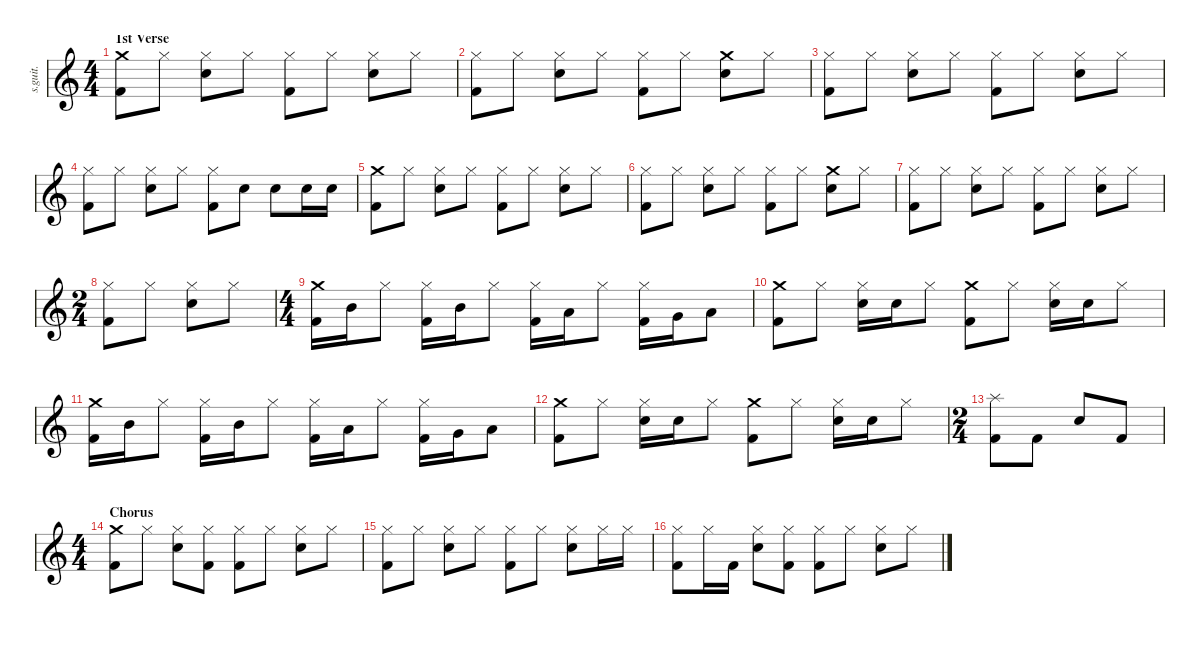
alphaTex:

\defaultSystemsLayout 4
\hideDynamics
\bracketExtendMode nobrackets
\track ("Lars Ulrich" "s.guit.") {instrument percussion}
\staff {score}
\articulation defaults
\ts (4 4)
\section ("" "1st Verse")
\tempo (69 hide)
\clef g2
\ks c
("Crash medium (hit)" "Kick (hit) 2").8{lyrics (0 "") lyrics (1 "") lyrics (2 "") lyrics (3 "") lyrics (4 "") dy f} "Hi-Hat (closed)".8{lyrics (0 "") lyrics (1 "") lyrics (2 "") lyrics (3 "") lyrics (4 "")} ("Hi-Hat (closed)" "Snare (hit) 2").8{lyrics (0 "") lyrics (1 "") lyrics (2 "") lyrics (3 "") lyrics (4 "")} "Hi-Hat (closed)".8{lyrics (0 "") lyrics (1 "") lyrics (2 "") lyrics (3 "") lyrics (4 "")} ("Hi-Hat (closed)" "Kick (hit) 2").8{lyrics (0 "") lyrics (1 "") lyrics (2 "") lyrics (3 "") lyrics (4 "")} "Hi-Hat (closed)".8{lyrics (0 "") lyrics (1 "") lyrics (2 "") lyrics (3 "") lyrics (4 "")} ("Hi-Hat (closed)" "Snare (hit) 2").8{lyrics (0 "") lyrics (1 "") lyrics (2 "") lyrics (3 "") lyrics (4 "")} "Hi-Hat (closed)".8{lyrics (0 "") lyrics (1 "") lyrics (2 "") lyrics (3 "") lyrics (4 "")} |
("Hi-Hat (closed)" "Kick (hit) 2").8{lyrics (0 "") lyrics (1 "") lyrics (2 "") lyrics (3 "") lyrics (4 "")} "Hi-Hat (closed)".8{lyrics (0 "") lyrics (1 "") lyrics (2 "") lyrics (3 "") lyrics (4 "")} ("Hi-Hat (closed)" "Snare (hit) 2").8{lyrics (0 "") lyrics (1 "") lyrics (2 "") lyrics (3 "") lyrics (4 "")} "Hi-Hat (closed)".8{lyrics (0 "") lyrics (1 "") lyrics (2 "") lyrics (3 "") lyrics (4 "")} ("Hi-Hat (closed)" "Kick (hit) 2").8{lyrics (0 "") lyrics (1 "") lyrics (2 "") lyrics (3 "") lyrics (4 "")} "Hi-Hat (closed)".8{lyrics (0 "") lyrics (1 "") lyrics (2 "") lyrics (3 "") lyrics (4 "")} ("Crash medium (hit)" "Snare (hit) 2").8{lyrics (0 "") lyrics (1 "") lyrics (2 "") lyrics (3 "") lyrics (4 "")} "Hi-Hat (closed)".8{lyrics (0 "") lyrics (1 "") lyrics (2 "") lyrics (3 "") lyrics (4 "")} |
("Hi-Hat (closed)" "Kick (hit) 2").8{lyrics (0 "") lyrics (1 "") lyrics (2 "") lyrics (3 "") lyrics (4 "")} "Hi-Hat (closed)".8{lyrics (0 "") lyrics (1 "") lyrics (2 "") lyrics (3 "") lyrics (4 "")} ("Hi-Hat (closed)" "Snare (hit) 2").8{lyrics (0 "") lyrics (1 "") lyrics (2 "") lyrics (3 "") lyrics (4 "")} "Hi-Hat (closed)".8{lyrics (0 "") lyrics (1 "") lyrics (2 "") lyrics (3 "") lyrics (4 "")} ("Hi-Hat (closed)" "Kick (hit) 2").8{lyrics (0 "") lyrics (1 "") lyrics (2 "") lyrics (3 "") lyrics (4 "")} "Hi-Hat (closed)".8{lyrics (0 "") lyrics (1 "") lyrics (2 "") lyrics (3 "") lyrics (4 "")} ("Hi-Hat (closed)" "Snare (hit) 2").8{lyrics (0 "") lyrics (1 "") lyrics (2 "") lyrics (3 "") lyrics (4 "")} "Hi-Hat (closed)".8{lyrics (0 "") lyrics (1 "") lyrics (2 "") lyrics (3 "") lyrics (4 "")} |
("Hi-Hat (closed)" "Kick (hit) 2").8{lyrics (0 "") lyrics (1 "") lyrics (2 "") lyrics (3 "") lyrics (4 "")} "Hi-Hat (closed)".8{lyrics (0 "") lyrics (1 "") lyrics (2 "") lyrics (3 "") lyrics (4 "")} ("Hi-Hat (closed)" "Snare (hit) 2").8{lyrics (0 "") lyrics (1 "") lyrics (2 "") lyrics (3 "") lyrics (4 "")} "Hi-Hat (closed)".8{lyrics (0 "") lyrics (1 "") lyrics (2 "") lyrics (3 "") lyrics (4 "")} ("Hi-Hat (closed)" "Kick (hit) 2").8{lyrics (0 "") lyrics (1 "") lyrics (2 "") lyrics (3 "") lyrics (4 "")} "Snare (hit) 2".8{lyrics (0 "") lyrics (1 "") lyrics (2 "") lyrics (3 "") lyrics (4 "")} "Snare (hit) 2".8{lyrics (0 "") lyrics (1 "") lyrics (2 "") lyrics (3 "") lyrics (4 "")} "Snare (hit) 2".16{lyrics (0 "") lyrics (1 "") lyrics (2 "") lyrics (3 "") lyrics (4 "")} "Snare (hit) 2".16{lyrics (0 "") lyrics (1 "") lyrics (2 "") lyrics (3 "") lyrics (4 "")} |
("Crash medium (hit)" "Kick (hit) 2").8{lyrics (0 "") lyrics (1 "") lyrics (2 "") lyrics (3 "") lyrics (4 "")} "Hi-Hat (closed)".8{lyrics (0 "") lyrics (1 "") lyrics (2 "") lyrics (3 "") lyrics (4 "")} ("Hi-Hat (closed)" "Snare (hit) 2").8{lyrics (0 "") lyrics (1 "") lyrics (2 "") lyrics (3 "") lyrics (4 "")} "Hi-Hat (closed)".8{lyrics (0 "") lyrics (1 "") lyrics (2 "") lyrics (3 "") lyrics (4 "")} ("Hi-Hat (closed)" "Kick (hit) 2").8{lyrics (0 "") lyrics (1 "") lyrics (2 "") lyrics (3 "") lyrics (4 "")} "Hi-Hat (closed)".8{lyrics (0 "") lyrics (1 "") lyrics (2 "") lyrics (3 "") lyrics (4 "")} ("Hi-Hat (closed)" "Snare (hit) 2").8{lyrics (0 "") lyrics (1 "") lyrics (2 "") lyrics (3 "") lyrics (4 "")} "Hi-Hat (closed)".8{lyrics (0 "") lyrics (1 "") lyrics (2 "") lyrics (3 "") lyrics (4 "")} |
("Hi-Hat (closed)" "Kick (hit) 2").8{lyrics (0 "") lyrics (1 "") lyrics (2 "") lyrics (3 "") lyrics (4 "")} "Hi-Hat (closed)".8{lyrics (0 "") lyrics (1 "") lyrics (2 "") lyrics (3 "") lyrics (4 "")} ("Hi-Hat (closed)" "Snare (hit) 2").8{lyrics (0 "") lyrics (1 "") lyrics (2 "") lyrics (3 "") lyrics (4 "")} "Hi-Hat (closed)".8{lyrics (0 "") lyrics (1 "") lyrics (2 "") lyrics (3 "") lyrics (4 "")} ("Hi-Hat (closed)" "Kick (hit) 2").8{lyrics (0 "") lyrics (1 "") lyrics (2 "") lyrics (3 "") lyrics (4 "")} "Hi-Hat (closed)".8{lyrics (0 "") lyrics (1 "") lyrics (2 "") lyrics (3 "") lyrics (4 "")} ("Crash medium (hit)" "Snare (hit) 2").8{lyrics (0 "") lyrics (1 "") lyrics (2 "") lyrics (3 "") lyrics (4 "")} "Hi-Hat (closed)".8{lyrics (0 "") lyrics (1 "") lyrics (2 "") lyrics (3 "") lyrics (4 "")} |
("Hi-Hat (closed)" "Kick (hit) 2").8{lyrics (0 "") lyrics (1 "") lyrics (2 "") lyrics (3 "") lyrics (4 "")} "Hi-Hat (closed)".8{lyrics (0 "") lyrics (1 "") lyrics (2 "") lyrics (3 "") lyrics (4 "")} ("Hi-Hat (closed)" "Snare (hit) 2").8{lyrics (0 "") lyrics (1 "") lyrics (2 "") lyrics (3 "") lyrics (4 "")} "Hi-Hat (closed)".8{lyrics (0 "") lyrics (1 "") lyrics (2 "") lyrics (3 "") lyrics (4 "")} ("Hi-Hat (closed)" "Kick (hit) 2").8{lyrics (0 "") lyrics (1 "") lyrics (2 "") lyrics (3 "") lyrics (4 "")} "Hi-Hat (closed)".8{lyrics (0 "") lyrics (1 "") lyrics (2 "") lyrics (3 "") lyrics (4 "")} ("Hi-Hat (closed)" "Snare (hit) 2").8{lyrics (0 "") lyrics (1 "") lyrics (2 "") lyrics (3 "") lyrics (4 "")} "Hi-Hat (closed)".8{lyrics (0 "") lyrics (1 "") lyrics (2 "") lyrics (3 "") lyrics (4 "")} |
\ts (2 4)
\beaming (8 2 2 2 2)
("Hi-Hat (closed)" "Kick (hit) 2").8{lyrics (0 "") lyrics (1 "") lyrics (2 "") lyrics (3 "") lyrics (4 "")} "Hi-Hat (closed)".8{lyrics (0 "") lyrics (1 "") lyrics (2 "") lyrics (3 "") lyrics (4 "")} ("Hi-Hat (closed)" "Snare (hit) 2").8{lyrics (0 "") lyrics (1 "") lyrics (2 "") lyrics (3 "") lyrics (4 "") dy fff} "Hi-Hat (closed)".8{lyrics (0 "") lyrics (1 "") lyrics (2 "") lyrics (3 "") lyrics (4 "") dy f} |
\ts (4 4)
\beaming (8 2 2 2 2)
("Crash medium (hit)" "Kick (hit) 2").16{lyrics (0 "") lyrics (1 "") lyrics (2 "") lyrics (3 "") lyrics (4 "")} "Mid Tom (hit)".16{lyrics (0 "") lyrics (1 "") lyrics (2 "") lyrics (3 "") lyrics (4 "") dy fff} "Hi-Hat (closed)".8{lyrics (0 "") lyrics (1 "") lyrics (2 "") lyrics (3 "") lyrics (4 "") dy f} ("Hi-Hat (closed)" "Kick (hit) 2").16{lyrics (0 "") lyrics (1 "") lyrics (2 "") lyrics (3 "") lyrics (4 "")} "Mid Tom (hit)".16{lyrics (0 "") lyrics (1 "") lyrics (2 "") lyrics (3 "") lyrics (4 "") dy fff} "Hi-Hat (closed)".8{lyrics (0 "") lyrics (1 "") lyrics (2 "") lyrics (3 "") lyrics (4 "") dy f} ("Hi-Hat (closed)" "Kick (hit) 2").16{lyrics (0 "") lyrics (1 "") lyrics (2 "") lyrics (3 "") lyrics (4 "")} "Low Tom (hit)".16{lyrics (0 "") lyrics (1 "") lyrics (2 "") lyrics (3 "") lyrics (4 "") dy fff} "Hi-Hat (closed)".8{lyrics (0 "") lyrics (1 "") lyrics (2 "") lyrics (3 "") lyrics (4 "") dy f} ("Hi-Hat (closed)" "Kick (hit) 2").16{lyrics (0 "") lyrics (1 "") lyrics (2 "") lyrics (3 "") lyrics (4 "")} "Very Low Tom (hit)".16{lyrics (0 "") lyrics (1 "") lyrics (2 "") lyrics (3 "") lyrics (4 "") dy fff} "Low Floor Tom (hit)".8{lyrics (0 "") lyrics (1 "") lyrics (2 "") lyrics (3 "") lyrics (4 "")} |
("Crash medium (hit)" "Kick (hit) 2").8{lyrics (0 "") lyrics (1 "") lyrics (2 "") lyrics (3 "") lyrics (4 "") dy f} "Hi-Hat (closed)".8{lyrics (0 "") lyrics (1 "") lyrics (2 "") lyrics (3 "") lyrics (4 "")} ("Hi-Hat (closed)" "Snare (hit) 2").16{lyrics (0 "") lyrics (1 "") lyrics (2 "") lyrics (3 "") lyrics (4 "")} "Snare (hit) 2".16{lyrics (0 "") lyrics (1 "") lyrics (2 "") lyrics (3 "") lyrics (4 "")} "Hi-Hat (closed)".8{lyrics (0 "") lyrics (1 "") lyrics (2 "") lyrics (3 "") lyrics (4 "")} ("Crash medium (hit)" "Kick (hit) 2").8{lyrics (0 "") lyrics (1 "") lyrics (2 "") lyrics (3 "") lyrics (4 "")} "Hi-Hat (closed)".8{lyrics (0 "") lyrics (1 "") lyrics (2 "") lyrics (3 "") lyrics (4 "")} ("Hi-Hat (closed)" "Snare (hit) 2").16{lyrics (0 "") lyrics (1 "") lyrics (2 "") lyrics (3 "") lyrics (4 "")} "Snare (hit) 2".16{lyrics (0 "") lyrics (1 "") lyrics (2 "") lyrics (3 "") lyrics (4 "")} "Hi-Hat (closed)".8{lyrics (0 "") lyrics (1 "") lyrics (2 "") lyrics (3 "") lyrics (4 "")} |
("Crash medium (hit)" "Kick (hit) 2").16{lyrics (0 "") lyrics (1 "") lyrics (2 "") lyrics (3 "") lyrics (4 "")} "Mid Tom (hit)".16{lyrics (0 "") lyrics (1 "") lyrics (2 "") lyrics (3 "") lyrics (4 "") dy fff} "Hi-Hat (closed)".8{lyrics (0 "") lyrics (1 "") lyrics (2 "") lyrics (3 "") lyrics (4 "") dy f} ("Hi-Hat (closed)" "Kick (hit) 2").16{lyrics (0 "") lyrics (1 "") lyrics (2 "") lyrics (3 "") lyrics (4 "")} "Mid Tom (hit)".16{lyrics (0 "") lyrics (1 "") lyrics (2 "") lyrics (3 "") lyrics (4 "") dy fff} "Hi-Hat (closed)".8{lyrics (0 "") lyrics (1 "") lyrics (2 "") lyrics (3 "") lyrics (4 "") dy f} ("Hi-Hat (closed)" "Kick (hit) 2").16{lyrics (0 "") lyrics (1 "") lyrics (2 "") lyrics (3 "") lyrics (4 "")} "Low Tom (hit)".16{lyrics (0 "") lyrics (1 "") lyrics (2 "") lyrics (3 "") lyrics (4 "") dy fff} "Hi-Hat (closed)".8{lyrics (0 "") lyrics (1 "") lyrics (2 "") lyrics (3 "") lyrics (4 "") dy f} ("Hi-Hat (closed)" "Kick (hit) 2").16{lyrics (0 "") lyrics (1 "") lyrics (2 "") lyrics (3 "") lyrics (4 "")} "Very Low Tom (hit)".16{lyrics (0 "") lyrics (1 "") lyrics (2 "") lyrics (3 "") lyrics (4 "") dy fff} "Low Floor Tom (hit)".8{lyrics (0 "") lyrics (1 "") lyrics (2 "") lyrics (3 "") lyrics (4 "")} |
("Crash medium (hit)" "Kick (hit) 2").8{lyrics (0 "") lyrics (1 "") lyrics (2 "") lyrics (3 "") lyrics (4 "") dy f} "Hi-Hat (closed)".8{lyrics (0 "") lyrics (1 "") lyrics (2 "") lyrics (3 "") lyrics (4 "")} ("Hi-Hat (closed)" "Snare (hit) 2").16{lyrics (0 "") lyrics (1 "") lyrics (2 "") lyrics (3 "") lyrics (4 "")} "Snare (hit) 2".16{lyrics (0 "") lyrics (1 "") lyrics (2 "") lyrics (3 "") lyrics (4 "")} "Hi-Hat (closed)".8{lyrics (0 "") lyrics (1 "") lyrics (2 "") lyrics (3 "") lyrics (4 "")} ("Crash medium (hit)" "Kick (hit) 2").8{lyrics (0 "") lyrics (1 "") lyrics (2 "") lyrics (3 "") lyrics (4 "")} "Hi-Hat (closed)".8{lyrics (0 "") lyrics (1 "") lyrics (2 "") lyrics (3 "") lyrics (4 "")} ("Hi-Hat (closed)" "Snare (hit) 2").16{lyrics (0 "") lyrics (1 "") lyrics (2 "") lyrics (3 "") lyrics (4 "")} "Snare (hit) 2".16{lyrics (0 "") lyrics (1 "") lyrics (2 "") lyrics (3 "") lyrics (4 "")} "Hi-Hat (closed)".8{lyrics (0 "") lyrics (1 "") lyrics (2 "") lyrics (3 "") lyrics (4 "")} |
\ts (2 4)
\beaming (8 2 2 2 2)
("Splash (hit)" "Kick (hit) 2").8{lyrics (0 "") lyrics (1 "") lyrics (2 "") lyrics (3 "") lyrics (4 "")} "Kick (hit) 2".8{lyrics (0 "") lyrics (1 "") lyrics (2 "") lyrics (3 "") lyrics (4 "") dy fff} "Snare (hit) 2".8{lyrics (0 "") lyrics (1 "") lyrics (2 "") lyrics (3 "") lyrics (4 "") dy f} "Kick (hit) 2".8{lyrics (0 "") lyrics (1 "") lyrics (2 "") lyrics (3 "") lyrics (4 "") dy fff} |
\ts (4 4)
\beaming (8 2 2 2 2)
\section ("" "Chorus")
("Crash medium (hit)" "Kick (hit) 2").8{lyrics (0 "") lyrics (1 "") lyrics (2 "") lyrics (3 "") lyrics (4 "") dy f} "Hi-Hat (closed)".8{lyrics (0 "") lyrics (1 "") lyrics (2 "") lyrics (3 "") lyrics (4 "")} ("Hi-Hat (closed)" "Snare (hit) 2").8{lyrics (0 "") lyrics (1 "") lyrics (2 "") lyrics (3 "") lyrics (4 "")} ("Hi-Hat (closed)" "Kick (hit) 2").8{lyrics (0 "") lyrics (1 "") lyrics (2 "") lyrics (3 "") lyrics (4 "")} ("Hi-Hat (closed)" "Kick (hit) 2").8{lyrics (0 "") lyrics (1 "") lyrics (2 "") lyrics (3 "") lyrics (4 "")} "Hi-Hat (closed)".8{lyrics (0 "") lyrics (1 "") lyrics (2 "") lyrics (3 "") lyrics (4 "")} ("Hi-Hat (closed)" "Snare (hit) 2").8{lyrics (0 "") lyrics (1 "") lyrics (2 "") lyrics (3 "") lyrics (4 "")} "Hi-Hat (closed)".8{lyrics (0 "") lyrics (1 "") lyrics (2 "") lyrics (3 "") lyrics (4 "")} |
("Hi-Hat (closed)" "Kick (hit) 2").8{lyrics (0 "") lyrics (1 "") lyrics (2 "") lyrics (3 "") lyrics (4 "")} "Hi-Hat (closed)".8{lyrics (0 "") lyrics (1 "") lyrics (2 "") lyrics (3 "") lyrics (4 "")} ("Hi-Hat (closed)" "Snare (hit) 2").8{lyrics (0 "") lyrics (1 "") lyrics (2 "") lyrics (3 "") lyrics (4 "")} "Hi-Hat (closed)".8{lyrics (0 "") lyrics (1 "") lyrics (2 "") lyrics (3 "") lyrics (4 "")} ("Hi-Hat (closed)" "Kick (hit) 2").8{lyrics (0 "") lyrics (1 "") lyrics (2 "") lyrics (3 "") lyrics (4 "")} "Hi-Hat (closed)".8{lyrics (0 "") lyrics (1 "") lyrics (2 "") lyrics (3 "") lyrics (4 "")} ("Hi-Hat (closed)" "Snare (hit) 2").8{lyrics (0 "") lyrics (1 "") lyrics (2 "") lyrics (3 "") lyrics (4 "")} "Hi-Hat (closed)".16{lyrics (0 "") lyrics (1 "") lyrics (2 "") lyrics (3 "") lyrics (4 "")} "Hi-Hat (closed)".16{lyrics (0 "") lyrics (1 "") lyrics (2 "") lyrics (3 "") lyrics (4 "")} |
("Hi-Hat (closed)" "Kick (hit) 2").8{lyrics (0 "") lyrics (1 "") lyrics (2 "") lyrics (3 "") lyrics (4 "")} "Hi-Hat (closed)".16{lyrics (0 "") lyrics (1 "") lyrics (2 "") lyrics (3 "") lyrics (4 "")} "Kick (hit) 2".16{lyrics (0 "") lyrics (1 "") lyrics (2 "") lyrics (3 "") lyrics (4 "") dy fff} ("Hi-Hat (closed)" "Snare (hit) 2").8{lyrics (0 "") lyrics (1 "") lyrics (2 "") lyrics (3 "") lyrics (4 "") dy f} ("Hi-Hat (closed)" "Kick (hit) 2").8{lyrics (0 "") lyrics (1 "") lyrics (2 "") lyrics (3 "") lyrics (4 "")} ("Hi-Hat (closed)" "Kick (hit) 2").8{lyrics (0 "") lyrics (1 "") lyrics (2 "") lyrics (3 "") lyrics (4 "")} "Hi-Hat (closed)".8{lyrics (0 "") lyrics (1 "") lyrics (2 "") lyrics (3 "") lyrics (4 "")} ("Hi-Hat (closed)" "Snare (hit) 2").8{lyrics (0 "") lyrics (1 "") lyrics (2 "") lyrics (3 "") lyrics (4 "")} "Hi-Hat (closed)".8{lyrics (0 "") lyrics (1 "") lyrics (2 "") lyrics (3 "") lyrics (4 "")}
